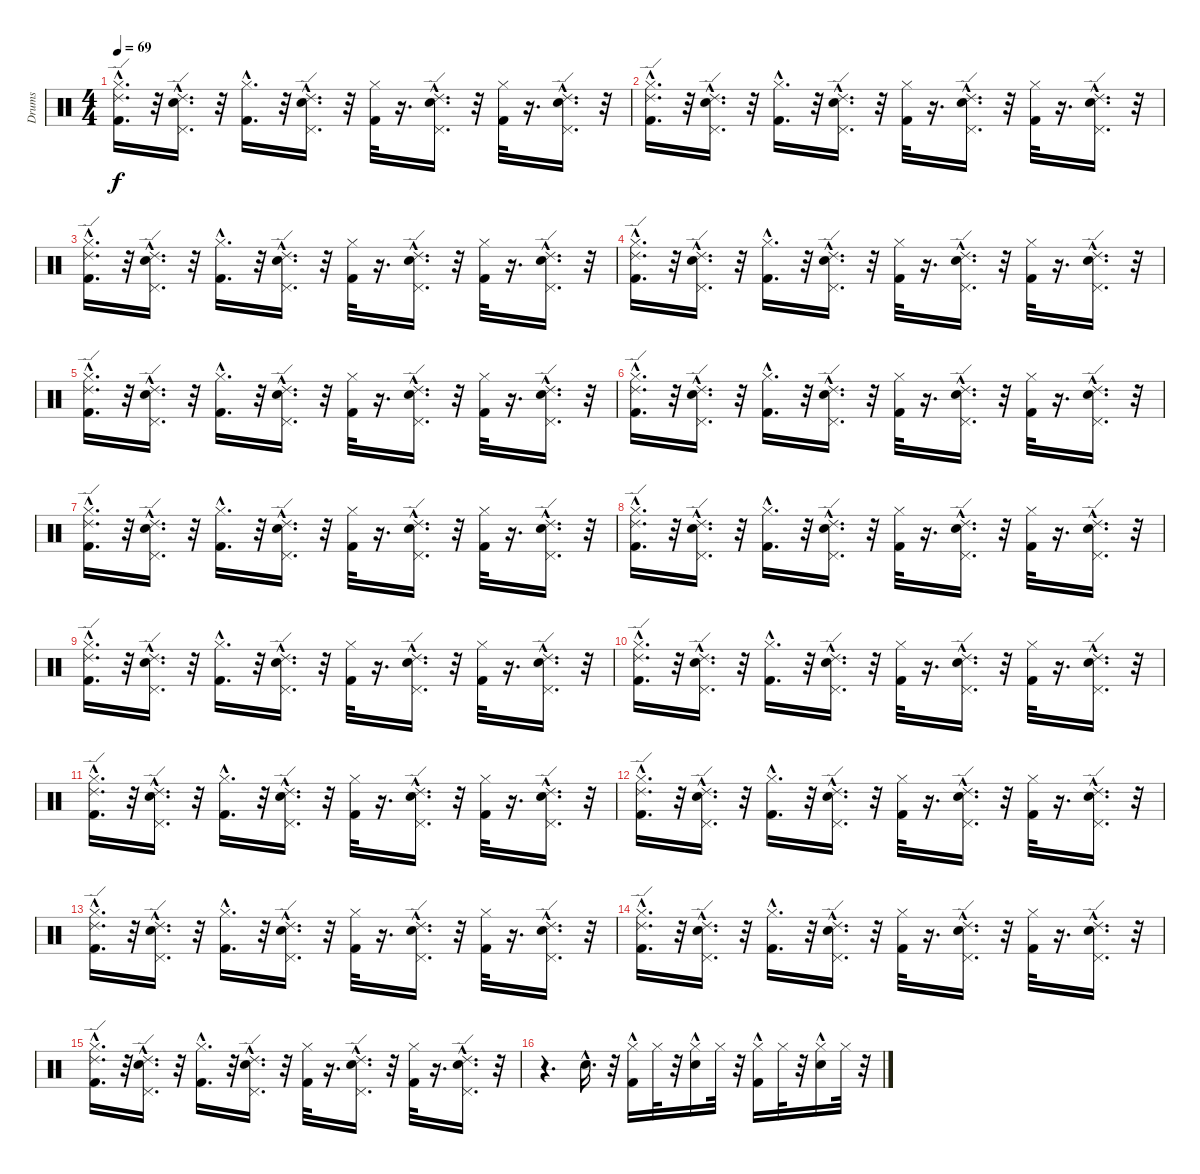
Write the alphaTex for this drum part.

\track ("Drums" "Drums") {instrument percussion}
\staff {score}
\articulation defaults
\ts (4 4)
\tempo 69
\clef neutral
\ks c
("Ride (edge) 2"{hac} "Kick (hit) 2"{hac} "Hi-Hat (closed)"{hac}).16{d dy f} r.32 ("Snare (hit) 2"{hac} "Pedal Hi-Hat (hit)"{hac} "Ride (edge) 2").16{d} r.32 ("Kick (hit) 2"{hac} "Hi-Hat (closed)"{hac}).16{d} r.32 ("Snare (hit) 2"{hac} "Pedal Hi-Hat (hit)"{hac} "Ride (edge) 2").16{d} r.32 ("Hi-Hat (closed)" "Kick (hit) 2").32 r.16{d} ("Ride (edge) 2"{hac} "Pedal Hi-Hat (hit)" "Snare (hit) 2").16{d} r.32 ("Hi-Hat (closed)" "Kick (hit) 2").32 r.16{d} ("Ride (edge) 2"{hac} "Pedal Hi-Hat (hit)" "Snare (hit) 2").16{d} r.32 |
("Ride (edge) 2"{hac} "Kick (hit) 2"{hac} "Hi-Hat (closed)"{hac}).16{d} r.32 ("Snare (hit) 2"{hac} "Pedal Hi-Hat (hit)"{hac} "Ride (edge) 2").16{d} r.32 ("Kick (hit) 2"{hac} "Hi-Hat (closed)"{hac}).16{d} r.32 ("Snare (hit) 2"{hac} "Pedal Hi-Hat (hit)"{hac} "Ride (edge) 2").16{d} r.32 ("Hi-Hat (closed)" "Kick (hit) 2").32 r.16{d} ("Ride (edge) 2"{hac} "Pedal Hi-Hat (hit)" "Snare (hit) 2").16{d} r.32 ("Hi-Hat (closed)" "Kick (hit) 2").32 r.16{d} ("Ride (edge) 2"{hac} "Pedal Hi-Hat (hit)" "Snare (hit) 2").16{d} r.32 |
("Ride (edge) 2"{hac} "Kick (hit) 2"{hac} "Hi-Hat (closed)"{hac}).16{d} r.32 ("Snare (hit) 2"{hac} "Pedal Hi-Hat (hit)"{hac} "Ride (edge) 2").16{d} r.32 ("Kick (hit) 2"{hac} "Hi-Hat (closed)"{hac}).16{d} r.32 ("Snare (hit) 2"{hac} "Pedal Hi-Hat (hit)"{hac} "Ride (edge) 2").16{d} r.32 ("Hi-Hat (closed)" "Kick (hit) 2").32 r.16{d} ("Ride (edge) 2"{hac} "Pedal Hi-Hat (hit)" "Snare (hit) 2").16{d} r.32 ("Hi-Hat (closed)" "Kick (hit) 2").32 r.16{d} ("Ride (edge) 2"{hac} "Pedal Hi-Hat (hit)" "Snare (hit) 2").16{d} r.32 |
("Ride (edge) 2"{hac} "Kick (hit) 2"{hac} "Hi-Hat (closed)"{hac}).16{d} r.32 ("Snare (hit) 2"{hac} "Pedal Hi-Hat (hit)"{hac} "Ride (edge) 2").16{d} r.32 ("Kick (hit) 2"{hac} "Hi-Hat (closed)"{hac}).16{d} r.32 ("Snare (hit) 2"{hac} "Pedal Hi-Hat (hit)"{hac} "Ride (edge) 2").16{d} r.32 ("Hi-Hat (closed)" "Kick (hit) 2").32 r.16{d} ("Ride (edge) 2"{hac} "Pedal Hi-Hat (hit)" "Snare (hit) 2").16{d} r.32 ("Hi-Hat (closed)" "Kick (hit) 2").32 r.16{d} ("Ride (edge) 2"{hac} "Pedal Hi-Hat (hit)" "Snare (hit) 2").16{d} r.32 |
("Ride (edge) 2"{hac} "Kick (hit) 2"{hac} "Hi-Hat (closed)"{hac}).16{d} r.32 ("Snare (hit) 2"{hac} "Pedal Hi-Hat (hit)"{hac} "Ride (edge) 2").16{d} r.32 ("Kick (hit) 2"{hac} "Hi-Hat (closed)"{hac}).16{d} r.32 ("Snare (hit) 2"{hac} "Pedal Hi-Hat (hit)"{hac} "Ride (edge) 2").16{d} r.32 ("Hi-Hat (closed)" "Kick (hit) 2").32 r.16{d} ("Ride (edge) 2"{hac} "Pedal Hi-Hat (hit)" "Snare (hit) 2").16{d} r.32 ("Hi-Hat (closed)" "Kick (hit) 2").32 r.16{d} ("Ride (edge) 2"{hac} "Pedal Hi-Hat (hit)" "Snare (hit) 2").16{d} r.32 |
("Ride (edge) 2"{hac} "Kick (hit) 2"{hac} "Hi-Hat (closed)"{hac}).16{d} r.32 ("Snare (hit) 2"{hac} "Pedal Hi-Hat (hit)"{hac} "Ride (edge) 2").16{d} r.32 ("Kick (hit) 2"{hac} "Hi-Hat (closed)"{hac}).16{d} r.32 ("Snare (hit) 2"{hac} "Pedal Hi-Hat (hit)"{hac} "Ride (edge) 2").16{d} r.32 ("Hi-Hat (closed)" "Kick (hit) 2").32 r.16{d} ("Ride (edge) 2"{hac} "Pedal Hi-Hat (hit)" "Snare (hit) 2").16{d} r.32 ("Hi-Hat (closed)" "Kick (hit) 2").32 r.16{d} ("Ride (edge) 2"{hac} "Pedal Hi-Hat (hit)" "Snare (hit) 2").16{d} r.32 |
("Ride (edge) 2"{hac} "Kick (hit) 2"{hac} "Hi-Hat (closed)"{hac}).16{d} r.32 ("Snare (hit) 2"{hac} "Pedal Hi-Hat (hit)"{hac} "Ride (edge) 2").16{d} r.32 ("Kick (hit) 2"{hac} "Hi-Hat (closed)"{hac}).16{d} r.32 ("Snare (hit) 2"{hac} "Pedal Hi-Hat (hit)"{hac} "Ride (edge) 2").16{d} r.32 ("Hi-Hat (closed)" "Kick (hit) 2").32 r.16{d} ("Ride (edge) 2"{hac} "Pedal Hi-Hat (hit)" "Snare (hit) 2").16{d} r.32 ("Hi-Hat (closed)" "Kick (hit) 2").32 r.16{d} ("Ride (edge) 2"{hac} "Pedal Hi-Hat (hit)" "Snare (hit) 2").16{d} r.32 |
("Ride (edge) 2"{hac} "Kick (hit) 2"{hac} "Hi-Hat (closed)"{hac}).16{d} r.32 ("Snare (hit) 2"{hac} "Pedal Hi-Hat (hit)"{hac} "Ride (edge) 2").16{d} r.32 ("Kick (hit) 2"{hac} "Hi-Hat (closed)"{hac}).16{d} r.32 ("Snare (hit) 2"{hac} "Pedal Hi-Hat (hit)"{hac} "Ride (edge) 2").16{d} r.32 ("Hi-Hat (closed)" "Kick (hit) 2").32 r.16{d} ("Ride (edge) 2"{hac} "Pedal Hi-Hat (hit)" "Snare (hit) 2").16{d} r.32 ("Hi-Hat (closed)" "Kick (hit) 2").32 r.16{d} ("Ride (edge) 2"{hac} "Pedal Hi-Hat (hit)" "Snare (hit) 2").16{d} r.32 |
("Ride (edge) 2"{hac} "Kick (hit) 2"{hac} "Hi-Hat (closed)"{hac}).16{d} r.32 ("Snare (hit) 2"{hac} "Pedal Hi-Hat (hit)"{hac} "Ride (edge) 2").16{d} r.32 ("Kick (hit) 2"{hac} "Hi-Hat (closed)"{hac}).16{d} r.32 ("Snare (hit) 2"{hac} "Pedal Hi-Hat (hit)"{hac} "Ride (edge) 2").16{d} r.32 ("Hi-Hat (closed)" "Kick (hit) 2").32 r.16{d} ("Ride (edge) 2"{hac} "Pedal Hi-Hat (hit)" "Snare (hit) 2").16{d} r.32 ("Hi-Hat (closed)" "Kick (hit) 2").32 r.16{d} ("Ride (edge) 2"{hac} "Pedal Hi-Hat (hit)" "Snare (hit) 2").16{d} r.32 |
("Ride (edge) 2"{hac} "Kick (hit) 2"{hac} "Hi-Hat (closed)"{hac}).16{d} r.32 ("Snare (hit) 2"{hac} "Pedal Hi-Hat (hit)"{hac} "Ride (edge) 2").16{d} r.32 ("Kick (hit) 2"{hac} "Hi-Hat (closed)"{hac}).16{d} r.32 ("Snare (hit) 2"{hac} "Pedal Hi-Hat (hit)"{hac} "Ride (edge) 2").16{d} r.32 ("Hi-Hat (closed)" "Kick (hit) 2").32 r.16{d} ("Ride (edge) 2"{hac} "Pedal Hi-Hat (hit)" "Snare (hit) 2").16{d} r.32 ("Hi-Hat (closed)" "Kick (hit) 2").32 r.16{d} ("Ride (edge) 2"{hac} "Pedal Hi-Hat (hit)" "Snare (hit) 2").16{d} r.32 |
("Ride (edge) 2"{hac} "Kick (hit) 2"{hac} "Hi-Hat (closed)"{hac}).16{d} r.32 ("Snare (hit) 2"{hac} "Pedal Hi-Hat (hit)"{hac} "Ride (edge) 2").16{d} r.32 ("Kick (hit) 2"{hac} "Hi-Hat (closed)"{hac}).16{d} r.32 ("Snare (hit) 2"{hac} "Pedal Hi-Hat (hit)"{hac} "Ride (edge) 2").16{d} r.32 ("Hi-Hat (closed)" "Kick (hit) 2").32 r.16{d} ("Ride (edge) 2"{hac} "Pedal Hi-Hat (hit)" "Snare (hit) 2").16{d} r.32 ("Hi-Hat (closed)" "Kick (hit) 2").32 r.16{d} ("Ride (edge) 2"{hac} "Pedal Hi-Hat (hit)" "Snare (hit) 2").16{d} r.32 |
("Ride (edge) 2"{hac} "Kick (hit) 2"{hac} "Hi-Hat (closed)"{hac}).16{d} r.32 ("Snare (hit) 2"{hac} "Pedal Hi-Hat (hit)"{hac} "Ride (edge) 2").16{d} r.32 ("Kick (hit) 2"{hac} "Hi-Hat (closed)"{hac}).16{d} r.32 ("Snare (hit) 2"{hac} "Pedal Hi-Hat (hit)"{hac} "Ride (edge) 2").16{d} r.32 ("Hi-Hat (closed)" "Kick (hit) 2").32 r.16{d} ("Ride (edge) 2"{hac} "Pedal Hi-Hat (hit)" "Snare (hit) 2").16{d} r.32 ("Hi-Hat (closed)" "Kick (hit) 2").32 r.16{d} ("Ride (edge) 2"{hac} "Pedal Hi-Hat (hit)" "Snare (hit) 2").16{d} r.32 |
("Ride (edge) 2"{hac} "Kick (hit) 2"{hac} "Hi-Hat (closed)"{hac}).16{d} r.32 ("Snare (hit) 2"{hac} "Pedal Hi-Hat (hit)"{hac} "Ride (edge) 2").16{d} r.32 ("Kick (hit) 2"{hac} "Hi-Hat (closed)"{hac}).16{d} r.32 ("Snare (hit) 2"{hac} "Pedal Hi-Hat (hit)"{hac} "Ride (edge) 2").16{d} r.32 ("Hi-Hat (closed)" "Kick (hit) 2").32 r.16{d} ("Ride (edge) 2"{hac} "Pedal Hi-Hat (hit)" "Snare (hit) 2").16{d} r.32 ("Hi-Hat (closed)" "Kick (hit) 2").32 r.16{d} ("Ride (edge) 2"{hac} "Pedal Hi-Hat (hit)" "Snare (hit) 2").16{d} r.32 |
("Ride (edge) 2"{hac} "Kick (hit) 2"{hac} "Hi-Hat (closed)"{hac}).16{d} r.32 ("Snare (hit) 2"{hac} "Pedal Hi-Hat (hit)"{hac} "Ride (edge) 2").16{d} r.32 ("Kick (hit) 2"{hac} "Hi-Hat (closed)"{hac}).16{d} r.32 ("Snare (hit) 2"{hac} "Pedal Hi-Hat (hit)"{hac} "Ride (edge) 2").16{d} r.32 ("Hi-Hat (closed)" "Kick (hit) 2").32 r.16{d} ("Ride (edge) 2"{hac} "Pedal Hi-Hat (hit)" "Snare (hit) 2").16{d} r.32 ("Hi-Hat (closed)" "Kick (hit) 2").32 r.16{d} ("Ride (edge) 2"{hac} "Pedal Hi-Hat (hit)" "Snare (hit) 2").16{d} r.32 |
("Ride (edge) 2"{hac} "Kick (hit) 2"{hac} "Hi-Hat (closed)"{hac}).16{d} r.32 ("Snare (hit) 2"{hac} "Pedal Hi-Hat (hit)"{hac} "Ride (edge) 2").16{d} r.32 ("Kick (hit) 2"{hac} "Hi-Hat (closed)"{hac}).16{d} r.32 ("Snare (hit) 2"{hac} "Pedal Hi-Hat (hit)"{hac} "Ride (edge) 2").16{d} r.32 ("Hi-Hat (closed)" "Kick (hit) 2").32 r.16{d} ("Ride (edge) 2"{hac} "Pedal Hi-Hat (hit)" "Snare (hit) 2").16{d} r.32 ("Hi-Hat (closed)" "Kick (hit) 2").32 r.16{d} ("Ride (edge) 2"{hac} "Pedal Hi-Hat (hit)" "Snare (hit) 2").16{d} r.32 |
r.4{d} "Snare (hit) 2"{hac}.16{d} r.32 ("Hi-Hat (closed)" "Kick (hit) 2"{hac}).16 "Hi-Hat (closed)".32 r.32 ("Hi-Hat (closed)" "Snare (hit) 2"{hac}).16 "Hi-Hat (closed)".32 r.32 ("Hi-Hat (closed)" "Kick (hit) 2"{hac}).16 "Hi-Hat (closed)".32 r.32 ("Hi-Hat (closed)" "Snare (hit) 2"{hac}).16 "Hi-Hat (closed)".32 r.32
